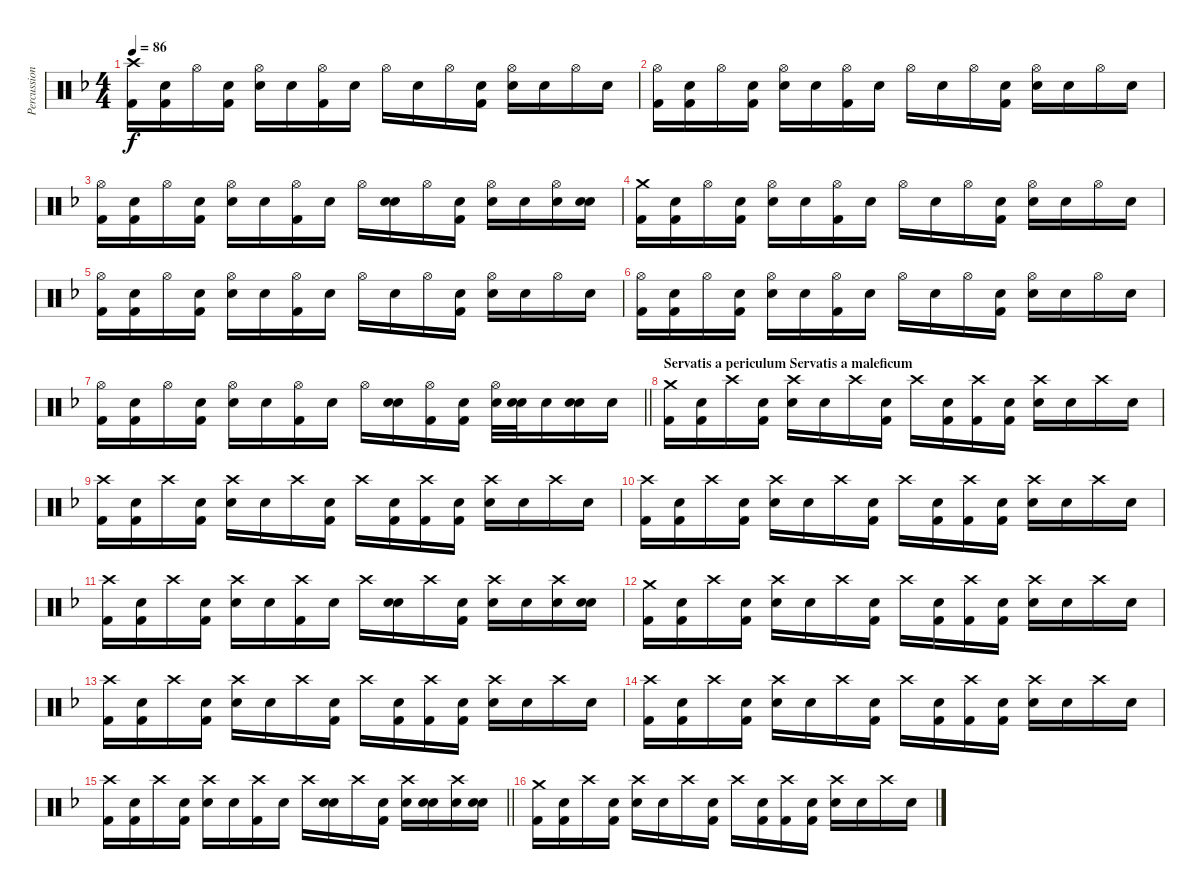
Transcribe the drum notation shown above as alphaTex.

\track ("Percussion" "Percussion") {instrument percussion}
\staff {score}
\articulation defaults
\ts (4 4)
\tempo 86
\clef neutral
\ks f
("Crash high (hit)" "Kick (hit) 2").16{dy f} ("Snare (hit)" "Kick (hit) 2").16 "Hi-Hat (open)".16 ("Snare (hit)" "Kick (hit) 2").16 ("Hi-Hat (open)" "Electric Snare (hit)").16 "Snare (hit)".16 ("Hi-Hat (open)" "Kick (hit) 2").16 "Snare (hit)".16 "Hi-Hat (open)".16 "Snare (hit)".16 "Hi-Hat (open)".16 ("Snare (hit)" "Kick (hit) 2").16 ("Hi-Hat (open)" "Electric Snare (hit)").16 "Snare (hit)".16 "Hi-Hat (open)".16 "Snare (hit)".16 |
("Hi-Hat (open)" "Kick (hit) 2").16 ("Snare (hit)" "Kick (hit) 2").16 "Hi-Hat (open)".16 ("Snare (hit)" "Kick (hit) 2").16 ("Hi-Hat (open)" "Electric Snare (hit)").16 "Snare (hit)".16 ("Hi-Hat (open)" "Kick (hit) 2").16 "Snare (hit)".16 "Hi-Hat (open)".16 "Snare (hit)".16 "Hi-Hat (open)".16 ("Snare (hit)" "Kick (hit) 2").16 ("Hi-Hat (open)" "Electric Snare (hit)").16 "Snare (hit)".16 "Hi-Hat (open)".16 "Snare (hit)".16 |
("Hi-Hat (open)" "Kick (hit) 2").16 ("Snare (hit)" "Kick (hit) 2").16 "Hi-Hat (open)".16 ("Snare (hit)" "Kick (hit) 2").16 ("Hi-Hat (open)" "Electric Snare (hit)").16 "Snare (hit)".16 ("Hi-Hat (open)" "Kick (hit) 2").16 "Snare (hit)".16 "Hi-Hat (open)".16 ("Snare (hit)" "Electric Snare (hit)").16 "Hi-Hat (open)".16 ("Snare (hit)" "Kick (hit) 2").16 ("Hi-Hat (open)" "Electric Snare (hit)").16 "Snare (hit)".16 ("Hi-Hat (open)" "Electric Snare (hit)").16 ("Snare (hit)" "Electric Snare (hit)").16 |
("Crash medium (hit)" "Kick (hit) 2").16 ("Snare (hit)" "Kick (hit) 2").16 "Hi-Hat (open)".16 ("Snare (hit)" "Kick (hit) 2").16 ("Hi-Hat (open)" "Electric Snare (hit)").16 "Snare (hit)".16 ("Hi-Hat (open)" "Kick (hit) 2").16 "Snare (hit)".16 "Hi-Hat (open)".16 "Snare (hit)".16 "Hi-Hat (open)".16 ("Snare (hit)" "Kick (hit) 2").16 ("Hi-Hat (open)" "Electric Snare (hit)").16 "Snare (hit)".16 "Hi-Hat (open)".16 "Snare (hit)".16 |
("Hi-Hat (open)" "Kick (hit) 2").16 ("Snare (hit)" "Kick (hit) 2").16 "Hi-Hat (open)".16 ("Snare (hit)" "Kick (hit) 2").16 ("Hi-Hat (open)" "Electric Snare (hit)").16 "Snare (hit)".16 ("Hi-Hat (open)" "Kick (hit) 2").16 "Snare (hit)".16 "Hi-Hat (open)".16 "Snare (hit)".16 "Hi-Hat (open)".16 ("Snare (hit)" "Kick (hit) 2").16 ("Hi-Hat (open)" "Electric Snare (hit)").16 "Snare (hit)".16 "Hi-Hat (open)".16 "Snare (hit)".16 |
("Hi-Hat (open)" "Kick (hit) 2").16 ("Snare (hit)" "Kick (hit) 2").16 "Hi-Hat (open)".16 ("Snare (hit)" "Kick (hit) 2").16 ("Hi-Hat (open)" "Electric Snare (hit)").16 "Snare (hit)".16 ("Hi-Hat (open)" "Kick (hit) 2").16 "Snare (hit)".16 "Hi-Hat (open)".16 "Snare (hit)".16 "Hi-Hat (open)".16 ("Snare (hit)" "Kick (hit) 2").16 ("Hi-Hat (open)" "Electric Snare (hit)").16 "Snare (hit)".16 "Hi-Hat (open)".16 "Snare (hit)".16 |
\barLineRight lightlight
("Hi-Hat (open)" "Kick (hit) 2").16 ("Snare (hit)" "Kick (hit) 2").16 "Hi-Hat (open)".16 ("Snare (hit)" "Kick (hit) 2").16 ("Hi-Hat (open)" "Electric Snare (hit)").16 "Snare (hit)".16 ("Hi-Hat (open)" "Kick (hit) 2").16 "Snare (hit)".16 "Hi-Hat (open)".16 ("Snare (hit)" "Electric Snare (hit)").16 ("Hi-Hat (open)" "Kick (hit) 2").16 ("Snare (hit)" "Kick (hit) 2").16 ("Hi-Hat (open)" "Electric Snare (hit)").32 ("Snare (hit)" "Electric Snare (hit)").32 "Electric Snare (hit)".16 ("Snare (hit)" "Electric Snare (hit)").16 "Electric Snare (hit)".16 |
\section ("" "Servatis a periculum Servatis a maleficum")
("Crash medium (hit)" "Kick (hit) 2").16 ("Snare (hit)" "Kick (hit) 2").16 "Crash high (hit)".16 ("Snare (hit)" "Kick (hit) 2").16 ("Crash high (hit)" "Electric Snare (hit)").16 "Snare (hit)".16 "Crash high (hit)".16 ("Snare (hit)" "Kick (hit) 2").16 "Crash high (hit)".16 ("Snare (hit)" "Kick (hit) 2").16 ("Crash high (hit)" "Kick (hit) 2").16 ("Snare (hit)" "Kick (hit) 2").16 ("Crash high (hit)" "Electric Snare (hit)").16 "Snare (hit)".16 "Crash high (hit)".16 "Snare (hit)".16 |
("Crash high (hit)" "Kick (hit) 2").16 ("Snare (hit)" "Kick (hit) 2").16 "Crash high (hit)".16 ("Snare (hit)" "Kick (hit) 2").16 ("Crash high (hit)" "Electric Snare (hit)").16 "Snare (hit)".16 "Crash high (hit)".16 ("Snare (hit)" "Kick (hit) 2").16 "Crash high (hit)".16 ("Snare (hit)" "Kick (hit) 2").16 ("Crash high (hit)" "Kick (hit) 2").16 ("Snare (hit)" "Kick (hit) 2").16 ("Crash high (hit)" "Electric Snare (hit)").16 "Snare (hit)".16 "Crash high (hit)".16 "Snare (hit)".16 |
("Crash high (hit)" "Kick (hit) 2").16 ("Snare (hit)" "Kick (hit) 2").16 "Crash high (hit)".16 ("Snare (hit)" "Kick (hit) 2").16 ("Crash high (hit)" "Electric Snare (hit)").16 "Snare (hit)".16 "Crash high (hit)".16 ("Snare (hit)" "Kick (hit) 2").16 "Crash high (hit)".16 ("Snare (hit)" "Kick (hit) 2").16 ("Crash high (hit)" "Kick (hit) 2").16 ("Snare (hit)" "Kick (hit) 2").16 ("Crash high (hit)" "Electric Snare (hit)").16 "Snare (hit)".16 "Crash high (hit)".16 "Snare (hit)".16 |
("Crash high (hit)" "Kick (hit) 2").16 ("Snare (hit)" "Kick (hit) 2").16 "Crash high (hit)".16 ("Snare (hit)" "Kick (hit) 2").16 ("Crash high (hit)" "Electric Snare (hit)").16 "Snare (hit)".16 ("Crash high (hit)" "Kick (hit) 2").16 "Snare (hit)".16 "Crash high (hit)".16 ("Snare (hit)" "Electric Snare (hit)").16 "Crash high (hit)".16 ("Snare (hit)" "Kick (hit) 2").16 ("Crash high (hit)" "Electric Snare (hit)").16 "Snare (hit)".16 ("Crash high (hit)" "Electric Snare (hit)").16 ("Snare (hit)" "Electric Snare (hit)").16 |
("Crash medium (hit)" "Kick (hit) 2").16 ("Snare (hit)" "Kick (hit) 2").16 "Crash high (hit)".16 ("Snare (hit)" "Kick (hit) 2").16 ("Crash high (hit)" "Electric Snare (hit)").16 "Snare (hit)".16 "Crash high (hit)".16 ("Snare (hit)" "Kick (hit) 2").16 "Crash high (hit)".16 ("Snare (hit)" "Kick (hit) 2").16 ("Crash high (hit)" "Kick (hit) 2").16 ("Snare (hit)" "Kick (hit) 2").16 ("Crash high (hit)" "Electric Snare (hit)").16 "Snare (hit)".16 "Crash high (hit)".16 "Snare (hit)".16 |
("Crash high (hit)" "Kick (hit) 2").16 ("Snare (hit)" "Kick (hit) 2").16 "Crash high (hit)".16 ("Snare (hit)" "Kick (hit) 2").16 ("Crash high (hit)" "Electric Snare (hit)").16 "Snare (hit)".16 "Crash high (hit)".16 ("Snare (hit)" "Kick (hit) 2").16 "Crash high (hit)".16 ("Snare (hit)" "Kick (hit) 2").16 ("Crash high (hit)" "Kick (hit) 2").16 ("Snare (hit)" "Kick (hit) 2").16 ("Crash high (hit)" "Electric Snare (hit)").16 "Snare (hit)".16 "Crash high (hit)".16 "Snare (hit)".16 |
("Crash high (hit)" "Kick (hit) 2").16 ("Snare (hit)" "Kick (hit) 2").16 "Crash high (hit)".16 ("Snare (hit)" "Kick (hit) 2").16 ("Crash high (hit)" "Electric Snare (hit)").16 "Snare (hit)".16 "Crash high (hit)".16 ("Snare (hit)" "Kick (hit) 2").16 "Crash high (hit)".16 ("Snare (hit)" "Kick (hit) 2").16 ("Crash high (hit)" "Kick (hit) 2").16 ("Snare (hit)" "Kick (hit) 2").16 ("Crash high (hit)" "Electric Snare (hit)").16 "Snare (hit)".16 "Crash high (hit)".16 "Snare (hit)".16 |
\barLineRight lightlight
("Crash high (hit)" "Kick (hit) 2").16 ("Snare (hit)" "Kick (hit) 2").16 "Crash high (hit)".16 ("Snare (hit)" "Kick (hit) 2").16 ("Crash high (hit)" "Electric Snare (hit)").16 "Snare (hit)".16 ("Crash high (hit)" "Kick (hit) 2").16 "Snare (hit)".16 "Crash high (hit)".16 ("Snare (hit)" "Electric Snare (hit)").16 "Crash high (hit)".16 ("Snare (hit)" "Kick (hit) 2").16 ("Crash high (hit)" "Electric Snare (hit)").16 ("Snare (hit)" "Electric Snare (hit)").16 ("Crash high (hit)" "Electric Snare (hit)").16 ("Snare (hit)" "Electric Snare (hit)").16 |
("Crash medium (hit)" "Kick (hit) 2").16 ("Snare (hit)" "Kick (hit) 2").16 "Crash high (hit)".16 ("Snare (hit)" "Kick (hit) 2").16 ("Crash high (hit)" "Electric Snare (hit)").16 "Snare (hit)".16 "Crash high (hit)".16 ("Snare (hit)" "Kick (hit) 2").16 "Crash high (hit)".16 ("Snare (hit)" "Kick (hit) 2").16 ("Crash high (hit)" "Kick (hit) 2").16 ("Snare (hit)" "Kick (hit) 2").16 ("Crash high (hit)" "Electric Snare (hit)").16 "Snare (hit)".16 "Crash high (hit)".16 "Snare (hit)".16
